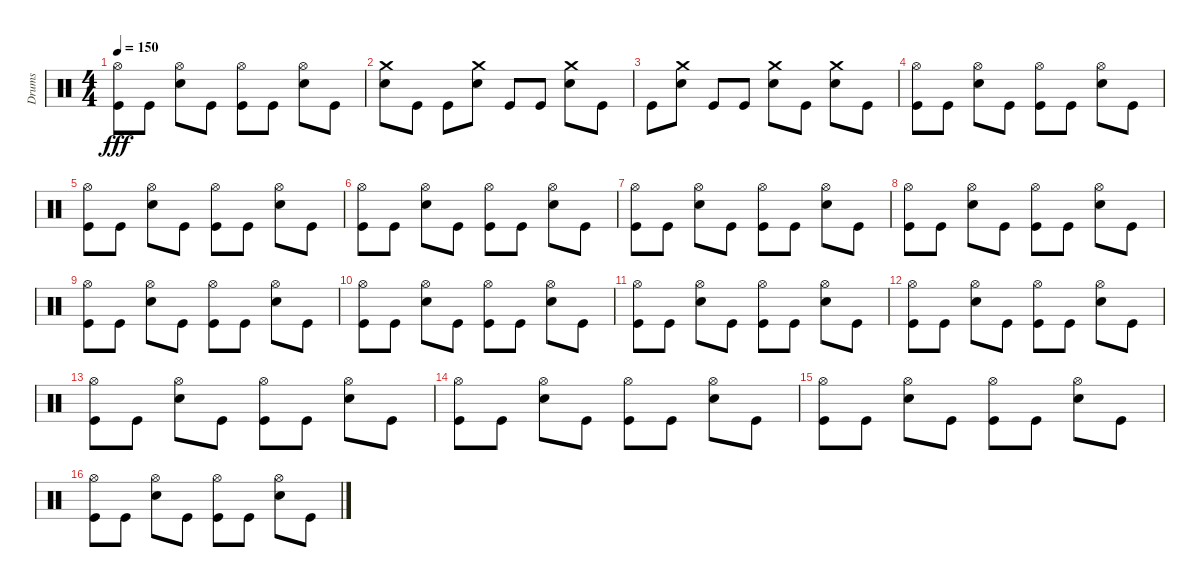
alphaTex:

\track ("Drums" "Drums") {instrument percussion}
\staff {score}
\articulation defaults
\ts (4 4)
\tempo 150
\clef neutral
\ks c
("Hi-Hat (open)" "Kick (hit)").8{dy fff} "Kick (hit)".8 ("Hi-Hat (open)" "Snare (hit) 2").8 "Kick (hit)".8 ("Hi-Hat (open)" "Kick (hit)").8 "Kick (hit)".8 ("Hi-Hat (open)" "Snare (hit) 2").8 "Kick (hit)".8 |
("Crash medium (hit)" "Snare (hit) 2").8 "Kick (hit)".8 "Kick (hit)".8 ("Crash medium (hit)" "Snare (hit) 2").8 "Kick (hit)".8 "Kick (hit)".8 ("Crash medium (hit)" "Snare (hit) 2").8 "Kick (hit)".8 |
"Kick (hit)".8 ("Crash medium (hit)" "Snare (hit) 2").8 "Kick (hit)".8 "Kick (hit)".8 ("Crash medium (hit)" "Snare (hit) 2").8 "Kick (hit)".8 ("Crash medium (hit)" "Snare (hit) 2").8 "Kick (hit)".8 |
("Hi-Hat (open)" "Kick (hit)").8 "Kick (hit)".8 ("Hi-Hat (open)" "Snare (hit) 2").8 "Kick (hit)".8 ("Hi-Hat (open)" "Kick (hit)").8 "Kick (hit)".8 ("Hi-Hat (open)" "Snare (hit) 2").8 "Kick (hit)".8 |
("Hi-Hat (open)" "Kick (hit)").8 "Kick (hit)".8 ("Hi-Hat (open)" "Snare (hit) 2").8 "Kick (hit)".8 ("Hi-Hat (open)" "Kick (hit)").8 "Kick (hit)".8 ("Hi-Hat (open)" "Snare (hit) 2").8 "Kick (hit)".8 |
("Hi-Hat (open)" "Kick (hit)").8 "Kick (hit)".8 ("Hi-Hat (open)" "Snare (hit) 2").8 "Kick (hit)".8 ("Hi-Hat (open)" "Kick (hit)").8 "Kick (hit)".8 ("Hi-Hat (open)" "Snare (hit) 2").8 "Kick (hit)".8 |
("Hi-Hat (open)" "Kick (hit)").8 "Kick (hit)".8 ("Hi-Hat (open)" "Snare (hit) 2").8 "Kick (hit)".8 ("Hi-Hat (open)" "Kick (hit)").8 "Kick (hit)".8 ("Hi-Hat (open)" "Snare (hit) 2").8 "Kick (hit)".8 |
("Hi-Hat (open)" "Kick (hit)").8 "Kick (hit)".8 ("Hi-Hat (open)" "Snare (hit) 2").8 "Kick (hit)".8 ("Hi-Hat (open)" "Kick (hit)").8 "Kick (hit)".8 ("Hi-Hat (open)" "Snare (hit) 2").8 "Kick (hit)".8 |
("Hi-Hat (open)" "Kick (hit)").8 "Kick (hit)".8 ("Hi-Hat (open)" "Snare (hit) 2").8 "Kick (hit)".8 ("Hi-Hat (open)" "Kick (hit)").8 "Kick (hit)".8 ("Hi-Hat (open)" "Snare (hit) 2").8 "Kick (hit)".8 |
("Hi-Hat (open)" "Kick (hit)").8 "Kick (hit)".8 ("Hi-Hat (open)" "Snare (hit) 2").8 "Kick (hit)".8 ("Hi-Hat (open)" "Kick (hit)").8 "Kick (hit)".8 ("Hi-Hat (open)" "Snare (hit) 2").8 "Kick (hit)".8 |
("Hi-Hat (open)" "Kick (hit)").8 "Kick (hit)".8 ("Hi-Hat (open)" "Snare (hit) 2").8 "Kick (hit)".8 ("Hi-Hat (open)" "Kick (hit)").8 "Kick (hit)".8 ("Hi-Hat (open)" "Snare (hit) 2").8 "Kick (hit)".8 |
("Hi-Hat (open)" "Kick (hit)").8 "Kick (hit)".8 ("Hi-Hat (open)" "Snare (hit) 2").8 "Kick (hit)".8 ("Hi-Hat (open)" "Kick (hit)").8 "Kick (hit)".8 ("Hi-Hat (open)" "Snare (hit) 2").8 "Kick (hit)".8 |
("Hi-Hat (open)" "Kick (hit)").8 "Kick (hit)".8 ("Hi-Hat (open)" "Snare (hit) 2").8 "Kick (hit)".8 ("Hi-Hat (open)" "Kick (hit)").8 "Kick (hit)".8 ("Hi-Hat (open)" "Snare (hit) 2").8 "Kick (hit)".8 |
("Hi-Hat (open)" "Kick (hit)").8 "Kick (hit)".8 ("Hi-Hat (open)" "Snare (hit) 2").8 "Kick (hit)".8 ("Hi-Hat (open)" "Kick (hit)").8 "Kick (hit)".8 ("Hi-Hat (open)" "Snare (hit) 2").8 "Kick (hit)".8 |
("Hi-Hat (open)" "Kick (hit)").8 "Kick (hit)".8 ("Hi-Hat (open)" "Snare (hit) 2").8 "Kick (hit)".8 ("Hi-Hat (open)" "Kick (hit)").8 "Kick (hit)".8 ("Hi-Hat (open)" "Snare (hit) 2").8 "Kick (hit)".8 |
("Hi-Hat (open)" "Kick (hit)").8 "Kick (hit)".8 ("Hi-Hat (open)" "Snare (hit) 2").8 "Kick (hit)".8 ("Hi-Hat (open)" "Kick (hit)").8 "Kick (hit)".8 ("Hi-Hat (open)" "Snare (hit) 2").8 "Kick (hit)".8
